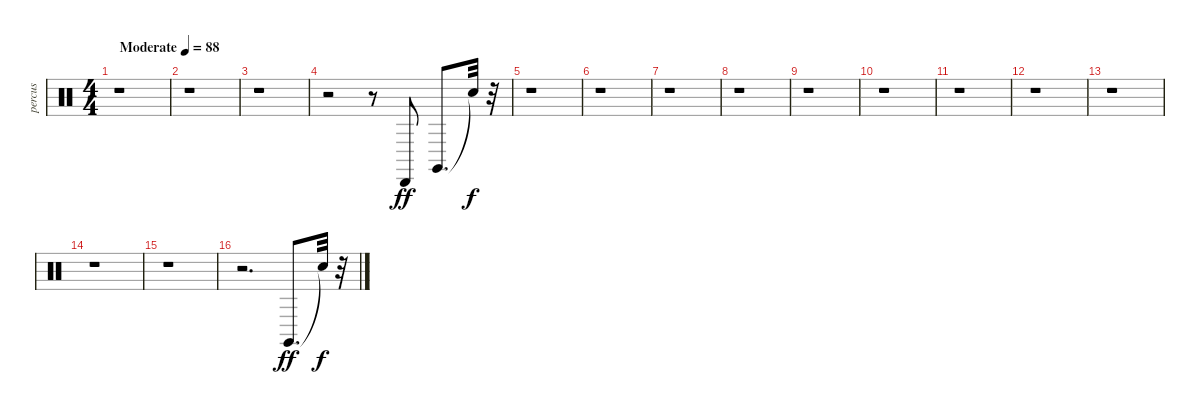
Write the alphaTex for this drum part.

\track ("percus" "percus") {instrument percussion}
\staff {score}
\articulation defaults
\ts (4 4)
\tempo (88 "Moderate")
\clef neutral
\ks c
r.1{dy ff} |
r.1 |
r.1 |
r.2 r.8 "Cabasa (hit)".8 "Claves (hit)".8{d} "Snare (hit)"{t}.32{dy f} r.32 |
r.1 |
r.1 |
r.1 |
r.1 |
r.1 |
r.1 |
r.1 |
r.1 |
r.1 |
r.1 |
r.1 |
r.2{d} "Claves (hit)".8{d dy ff} "Snare (hit)"{t}.32{dy f} r.32
